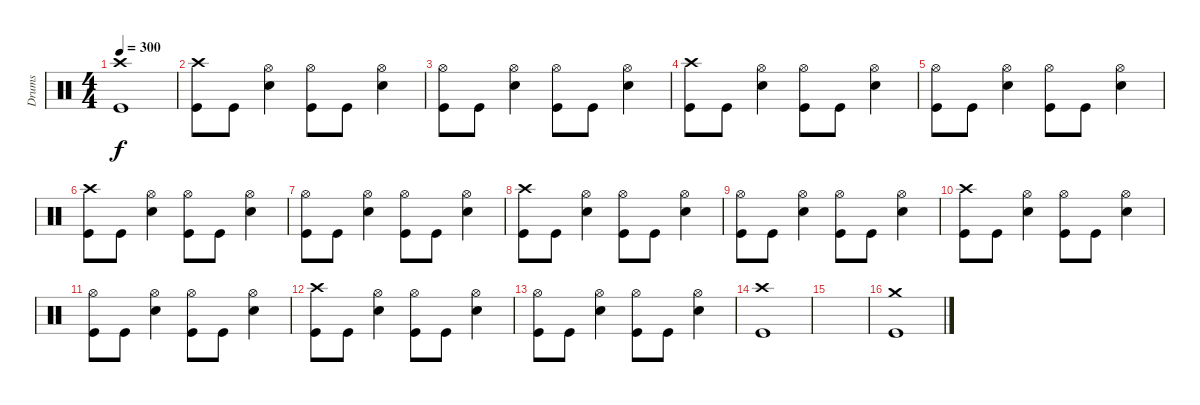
\track ("Drums" "Drums") {instrument percussion}
\staff {score}
\articulation defaults
\ts (4 4)
\tempo 300
\clef neutral
\ks c
("Crash high (hit)" "Kick (hit)").1{dy f} |
("Crash high (hit)" "Kick (hit)").8 "Kick (hit)".8 ("Hi-Hat (open)" "Electric Snare (hit)").4 ("Hi-Hat (open)" "Kick (hit)").8 "Kick (hit)".8 ("Hi-Hat (open)" "Electric Snare (hit)").4 |
("Hi-Hat (open)" "Kick (hit)").8 "Kick (hit)".8 ("Hi-Hat (open)" "Electric Snare (hit)").4 ("Hi-Hat (open)" "Kick (hit)").8 "Kick (hit)".8 ("Hi-Hat (open)" "Electric Snare (hit)").4 |
("Crash high (hit)" "Kick (hit)").8 "Kick (hit)".8 ("Hi-Hat (open)" "Electric Snare (hit)").4 ("Hi-Hat (open)" "Kick (hit)").8 "Kick (hit)".8 ("Hi-Hat (open)" "Electric Snare (hit)").4 |
("Hi-Hat (open)" "Kick (hit)").8 "Kick (hit)".8 ("Hi-Hat (open)" "Electric Snare (hit)").4 ("Hi-Hat (open)" "Kick (hit)").8 "Kick (hit)".8 ("Hi-Hat (open)" "Electric Snare (hit)").4 |
("Crash high (hit)" "Kick (hit)").8 "Kick (hit)".8 ("Hi-Hat (open)" "Electric Snare (hit)").4 ("Hi-Hat (open)" "Kick (hit)").8 "Kick (hit)".8 ("Hi-Hat (open)" "Electric Snare (hit)").4 |
("Hi-Hat (open)" "Kick (hit)").8 "Kick (hit)".8 ("Hi-Hat (open)" "Electric Snare (hit)").4 ("Hi-Hat (open)" "Kick (hit)").8 "Kick (hit)".8 ("Hi-Hat (open)" "Electric Snare (hit)").4 |
("Crash high (hit)" "Kick (hit)").8 "Kick (hit)".8 ("Hi-Hat (open)" "Electric Snare (hit)").4 ("Hi-Hat (open)" "Kick (hit)").8 "Kick (hit)".8 ("Hi-Hat (open)" "Electric Snare (hit)").4 |
("Hi-Hat (open)" "Kick (hit)").8 "Kick (hit)".8 ("Hi-Hat (open)" "Electric Snare (hit)").4 ("Hi-Hat (open)" "Kick (hit)").8 "Kick (hit)".8 ("Hi-Hat (open)" "Electric Snare (hit)").4 |
("Crash high (hit)" "Kick (hit)").8 "Kick (hit)".8 ("Hi-Hat (open)" "Electric Snare (hit)").4 ("Hi-Hat (open)" "Kick (hit)").8 "Kick (hit)".8 ("Hi-Hat (open)" "Electric Snare (hit)").4 |
("Hi-Hat (open)" "Kick (hit)").8 "Kick (hit)".8 ("Hi-Hat (open)" "Electric Snare (hit)").4 ("Hi-Hat (open)" "Kick (hit)").8 "Kick (hit)".8 ("Hi-Hat (open)" "Electric Snare (hit)").4 |
("Crash high (hit)" "Kick (hit)").8 "Kick (hit)".8 ("Hi-Hat (open)" "Electric Snare (hit)").4 ("Hi-Hat (open)" "Kick (hit)").8 "Kick (hit)".8 ("Hi-Hat (open)" "Electric Snare (hit)").4 |
("Hi-Hat (open)" "Kick (hit)").8 "Kick (hit)".8 ("Hi-Hat (open)" "Electric Snare (hit)").4 ("Hi-Hat (open)" "Kick (hit)").8 "Kick (hit)".8 ("Hi-Hat (open)" "Electric Snare (hit)").4 |
("Crash high (hit)" "Kick (hit)").1 |
|
("Crash medium (hit)" "Kick (hit)").1
